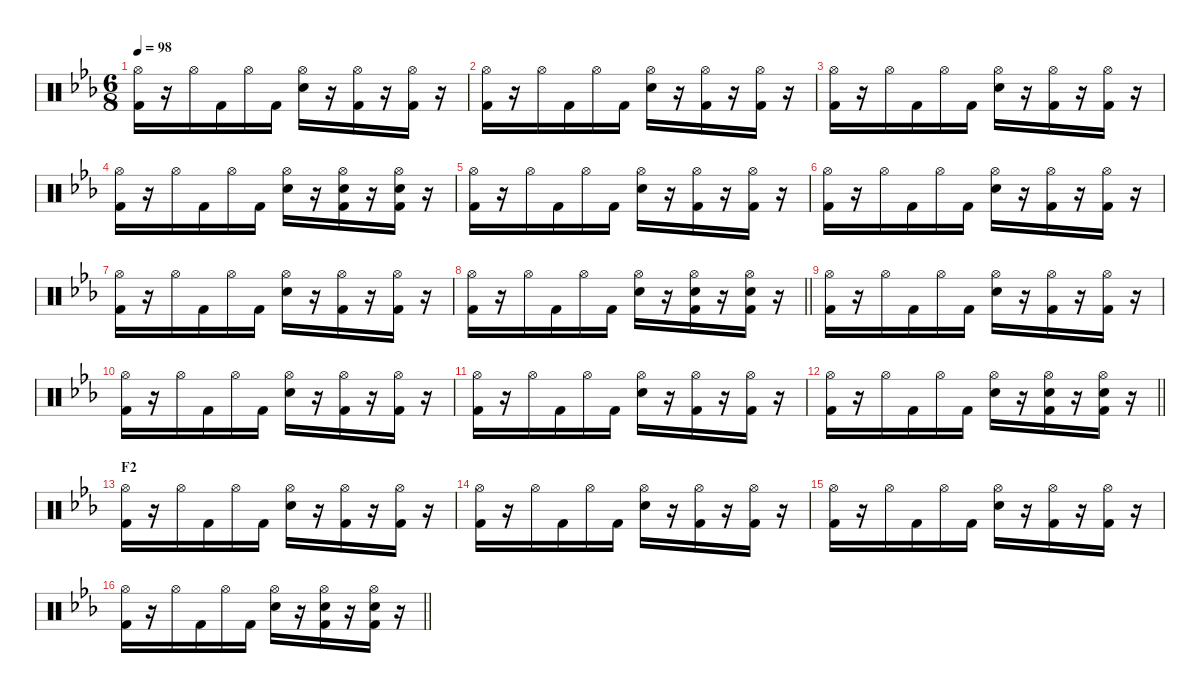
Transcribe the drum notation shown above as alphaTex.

\defaultSystemsLayout 4
\hideDynamics
\bracketExtendMode nobrackets
\singleTrackTrackNamePolicy hidden
\multiTrackTrackNamePolicy hidden
\firstSystemTrackNameMode fullname
\firstSystemTrackNameOrientation horizontal
\otherSystemsTrackNameOrientation horizontal
\track ("Gene Hogland" "drm.") {instrument percussion}
\staff {score}
\articulation defaults
\ts (6 8)
\tempo 98
\clef neutral
\ks eb
("Hi-Hat (open)"{acc forcenatural} "Kick (hit) 2"{acc forcenatural}).16{dy f beam Down} r.16{beam Down} "Hi-Hat (open)"{acc forcenatural}.16{beam Down} "Kick (hit) 2"{acc forcenatural}.16{beam Down} "Hi-Hat (open)"{acc forcenatural}.16{beam Down} "Kick (hit) 2"{acc forcenatural}.16{beam Down} ("Hi-Hat (open)"{acc forcenatural} "Snare (hit) 2"{acc forcenatural}).16{beam Down} r.16{beam Down} ("Hi-Hat (open)"{acc forcenatural} "Kick (hit) 2"{acc forcenatural}).16{beam Down} r.16{beam Down} ("Hi-Hat (open)"{acc forcenatural} "Kick (hit) 2"{acc forcenatural}).16{beam Down} r.16{beam Down} |
("Hi-Hat (open)"{acc forcenatural} "Kick (hit) 2"{acc forcenatural}).16{beam Down} r.16{beam Down} "Hi-Hat (open)"{acc forcenatural}.16{beam Down} "Kick (hit) 2"{acc forcenatural}.16{beam Down} "Hi-Hat (open)"{acc forcenatural}.16{beam Down} "Kick (hit) 2"{acc forcenatural}.16{beam Down} ("Hi-Hat (open)"{acc forcenatural} "Snare (hit) 2"{acc forcenatural}).16{beam Down} r.16{beam Down} ("Hi-Hat (open)"{acc forcenatural} "Kick (hit) 2"{acc forcenatural}).16{beam Down} r.16{beam Down} ("Hi-Hat (open)"{acc forcenatural} "Kick (hit) 2"{acc forcenatural}).16{beam Down} r.16{beam Down} |
("Hi-Hat (open)"{acc forcenatural} "Kick (hit) 2"{acc forcenatural}).16{beam Down} r.16{beam Down} "Hi-Hat (open)"{acc forcenatural}.16{beam Down} "Kick (hit) 2"{acc forcenatural}.16{beam Down} "Hi-Hat (open)"{acc forcenatural}.16{beam Down} "Kick (hit) 2"{acc forcenatural}.16{beam Down} ("Hi-Hat (open)"{acc forcenatural} "Snare (hit) 2"{acc forcenatural}).16{beam Down} r.16{beam Down} ("Hi-Hat (open)"{acc forcenatural} "Kick (hit) 2"{acc forcenatural}).16{beam Down} r.16{beam Down} ("Hi-Hat (open)"{acc forcenatural} "Kick (hit) 2"{acc forcenatural}).16{beam Down} r.16{beam Down} |
("Hi-Hat (open)"{acc forcenatural} "Kick (hit) 2"{acc forcenatural}).16{beam Down} r.16{beam Down} "Hi-Hat (open)"{acc forcenatural}.16{beam Down} "Kick (hit) 2"{acc forcenatural}.16{beam Down} "Hi-Hat (open)"{acc forcenatural}.16{beam Down} "Kick (hit) 2"{acc forcenatural}.16{beam Down} ("Hi-Hat (open)"{acc forcenatural} "Snare (hit) 2"{acc forcenatural}).16{beam Down} r.16{beam Down} ("Hi-Hat (open)"{acc forcenatural} "Snare (hit) 2"{acc forcenatural} "Kick (hit) 2"{acc forcenatural}).16{beam Down} r.16{beam Down} ("Hi-Hat (open)"{acc forcenatural} "Snare (hit) 2"{acc forcenatural} "Kick (hit) 2"{acc forcenatural}).16{beam Down} r.16{beam Down} |
("Hi-Hat (open)"{acc forcenatural} "Kick (hit) 2"{acc forcenatural}).16{beam Down} r.16{beam Down} "Hi-Hat (open)"{acc forcenatural}.16{beam Down} "Kick (hit) 2"{acc forcenatural}.16{beam Down} "Hi-Hat (open)"{acc forcenatural}.16{beam Down} "Kick (hit) 2"{acc forcenatural}.16{beam Down} ("Hi-Hat (open)"{acc forcenatural} "Snare (hit) 2"{acc forcenatural}).16{beam Down} r.16{beam Down} ("Hi-Hat (open)"{acc forcenatural} "Kick (hit) 2"{acc forcenatural}).16{beam Down} r.16{beam Down} ("Hi-Hat (open)"{acc forcenatural} "Kick (hit) 2"{acc forcenatural}).16{beam Down} r.16{beam Down} |
("Hi-Hat (open)"{acc forcenatural} "Kick (hit) 2"{acc forcenatural}).16{beam Down} r.16{beam Down} "Hi-Hat (open)"{acc forcenatural}.16{beam Down} "Kick (hit) 2"{acc forcenatural}.16{beam Down} "Hi-Hat (open)"{acc forcenatural}.16{beam Down} "Kick (hit) 2"{acc forcenatural}.16{beam Down} ("Hi-Hat (open)"{acc forcenatural} "Snare (hit) 2"{acc forcenatural}).16{beam Down} r.16{beam Down} ("Hi-Hat (open)"{acc forcenatural} "Kick (hit) 2"{acc forcenatural}).16{beam Down} r.16{beam Down} ("Hi-Hat (open)"{acc forcenatural} "Kick (hit) 2"{acc forcenatural}).16{beam Down} r.16{beam Down} |
("Hi-Hat (open)"{acc forcenatural} "Kick (hit) 2"{acc forcenatural}).16{beam Down} r.16{beam Down} "Hi-Hat (open)"{acc forcenatural}.16{beam Down} "Kick (hit) 2"{acc forcenatural}.16{beam Down} "Hi-Hat (open)"{acc forcenatural}.16{beam Down} "Kick (hit) 2"{acc forcenatural}.16{beam Down} ("Hi-Hat (open)"{acc forcenatural} "Snare (hit) 2"{acc forcenatural}).16{beam Down} r.16{beam Down} ("Hi-Hat (open)"{acc forcenatural} "Kick (hit) 2"{acc forcenatural}).16{beam Down} r.16{beam Down} ("Hi-Hat (open)"{acc forcenatural} "Kick (hit) 2"{acc forcenatural}).16{beam Down} r.16{beam Down} |
\barLineRight lightlight
("Hi-Hat (open)"{acc forcenatural} "Kick (hit) 2"{acc forcenatural}).16{beam Down} r.16{beam Down} "Hi-Hat (open)"{acc forcenatural}.16{beam Down} "Kick (hit) 2"{acc forcenatural}.16{beam Down} "Hi-Hat (open)"{acc forcenatural}.16{beam Down} "Kick (hit) 2"{acc forcenatural}.16{beam Down} ("Hi-Hat (open)"{acc forcenatural} "Snare (hit) 2"{acc forcenatural}).16{beam Down} r.16{beam Down} ("Hi-Hat (open)"{acc forcenatural} "Snare (hit) 2"{acc forcenatural} "Kick (hit) 2"{acc forcenatural}).16{beam Down} r.16{beam Down} ("Hi-Hat (open)"{acc forcenatural} "Snare (hit) 2"{acc forcenatural} "Kick (hit) 2"{acc forcenatural}).16{beam Down} r.16{beam Down} |
\section ("" "")
("Hi-Hat (open)"{acc forcenatural} "Kick (hit) 2"{acc forcenatural}).16{beam Down} r.16{beam Down} "Hi-Hat (open)"{acc forcenatural}.16{beam Down} "Kick (hit) 2"{acc forcenatural}.16{beam Down} "Hi-Hat (open)"{acc forcenatural}.16{beam Down} "Kick (hit) 2"{acc forcenatural}.16{beam Down} ("Hi-Hat (open)"{acc forcenatural} "Snare (hit) 2"{acc forcenatural}).16{beam Down} r.16{beam Down} ("Hi-Hat (open)"{acc forcenatural} "Kick (hit) 2"{acc forcenatural}).16{beam Down} r.16{beam Down} ("Hi-Hat (open)"{acc forcenatural} "Kick (hit) 2"{acc forcenatural}).16{beam Down} r.16{beam Down} |
("Hi-Hat (open)"{acc forcenatural} "Kick (hit) 2"{acc forcenatural}).16{beam Down} r.16{beam Down} "Hi-Hat (open)"{acc forcenatural}.16{beam Down} "Kick (hit) 2"{acc forcenatural}.16{beam Down} "Hi-Hat (open)"{acc forcenatural}.16{beam Down} "Kick (hit) 2"{acc forcenatural}.16{beam Down} ("Hi-Hat (open)"{acc forcenatural} "Snare (hit) 2"{acc forcenatural}).16{beam Down} r.16{beam Down} ("Hi-Hat (open)"{acc forcenatural} "Kick (hit) 2"{acc forcenatural}).16{beam Down} r.16{beam Down} ("Hi-Hat (open)"{acc forcenatural} "Kick (hit) 2"{acc forcenatural}).16{beam Down} r.16{beam Down} |
("Hi-Hat (open)"{acc forcenatural} "Kick (hit) 2"{acc forcenatural}).16{beam Down} r.16{beam Down} "Hi-Hat (open)"{acc forcenatural}.16{beam Down} "Kick (hit) 2"{acc forcenatural}.16{beam Down} "Hi-Hat (open)"{acc forcenatural}.16{beam Down} "Kick (hit) 2"{acc forcenatural}.16{beam Down} ("Hi-Hat (open)"{acc forcenatural} "Snare (hit) 2"{acc forcenatural}).16{beam Down} r.16{beam Down} ("Hi-Hat (open)"{acc forcenatural} "Kick (hit) 2"{acc forcenatural}).16{beam Down} r.16{beam Down} ("Hi-Hat (open)"{acc forcenatural} "Kick (hit) 2"{acc forcenatural}).16{beam Down} r.16{beam Down} |
\barLineRight lightlight
("Hi-Hat (open)"{acc forcenatural} "Kick (hit) 2"{acc forcenatural}).16{beam Down} r.16{beam Down} "Hi-Hat (open)"{acc forcenatural}.16{beam Down} "Kick (hit) 2"{acc forcenatural}.16{beam Down} "Hi-Hat (open)"{acc forcenatural}.16{beam Down} "Kick (hit) 2"{acc forcenatural}.16{beam Down} ("Hi-Hat (open)"{acc forcenatural} "Snare (hit) 2"{acc forcenatural}).16{beam Down} r.16{beam Down} ("Hi-Hat (open)"{acc forcenatural} "Snare (hit) 2"{acc forcenatural} "Kick (hit) 2"{acc forcenatural}).16{beam Down} r.16{beam Down} ("Hi-Hat (open)"{acc forcenatural} "Snare (hit) 2"{acc forcenatural} "Kick (hit) 2"{acc forcenatural}).16{beam Down} r.16{beam Down} |
\section ("" "F2")
("Hi-Hat (open)"{acc forcenatural} "Kick (hit) 2"{acc forcenatural}).16{beam Down} r.16{beam Down} "Hi-Hat (open)"{acc forcenatural}.16{beam Down} "Kick (hit) 2"{acc forcenatural}.16{beam Down} "Hi-Hat (open)"{acc forcenatural}.16{beam Down} "Kick (hit) 2"{acc forcenatural}.16{beam Down} ("Hi-Hat (open)"{acc forcenatural} "Snare (hit) 2"{acc forcenatural}).16{beam Down} r.16{beam Down} ("Hi-Hat (open)"{acc forcenatural} "Kick (hit) 2"{acc forcenatural}).16{beam Down} r.16{beam Down} ("Hi-Hat (open)"{acc forcenatural} "Kick (hit) 2"{acc forcenatural}).16{beam Down} r.16{beam Down} |
("Hi-Hat (open)"{acc forcenatural} "Kick (hit) 2"{acc forcenatural}).16{beam Down} r.16{beam Down} "Hi-Hat (open)"{acc forcenatural}.16{beam Down} "Kick (hit) 2"{acc forcenatural}.16{beam Down} "Hi-Hat (open)"{acc forcenatural}.16{beam Down} "Kick (hit) 2"{acc forcenatural}.16{beam Down} ("Hi-Hat (open)"{acc forcenatural} "Snare (hit) 2"{acc forcenatural}).16{beam Down} r.16{beam Down} ("Hi-Hat (open)"{acc forcenatural} "Kick (hit) 2"{acc forcenatural}).16{beam Down} r.16{beam Down} ("Hi-Hat (open)"{acc forcenatural} "Kick (hit) 2"{acc forcenatural}).16{beam Down} r.16{beam Down} |
("Hi-Hat (open)"{acc forcenatural} "Kick (hit) 2"{acc forcenatural}).16{beam Down} r.16{beam Down} "Hi-Hat (open)"{acc forcenatural}.16{beam Down} "Kick (hit) 2"{acc forcenatural}.16{beam Down} "Hi-Hat (open)"{acc forcenatural}.16{beam Down} "Kick (hit) 2"{acc forcenatural}.16{beam Down} ("Hi-Hat (open)"{acc forcenatural} "Snare (hit) 2"{acc forcenatural}).16{beam Down} r.16{beam Down} ("Hi-Hat (open)"{acc forcenatural} "Kick (hit) 2"{acc forcenatural}).16{beam Down} r.16{beam Down} ("Hi-Hat (open)"{acc forcenatural} "Kick (hit) 2"{acc forcenatural}).16{beam Down} r.16{beam Down} |
\barLineRight lightlight
("Hi-Hat (open)"{acc forcenatural} "Kick (hit) 2"{acc forcenatural}).16{beam Down} r.16{beam Down} "Hi-Hat (open)"{acc forcenatural}.16{beam Down} "Kick (hit) 2"{acc forcenatural}.16{beam Down} "Hi-Hat (open)"{acc forcenatural}.16{beam Down} "Kick (hit) 2"{acc forcenatural}.16{beam Down} ("Hi-Hat (open)"{acc forcenatural} "Snare (hit) 2"{acc forcenatural}).16{beam Down} r.16{beam Down} ("Hi-Hat (open)"{acc forcenatural} "Snare (hit) 2"{acc forcenatural} "Kick (hit) 2"{acc forcenatural}).16{beam Down} r.16{beam Down} ("Hi-Hat (open)"{acc forcenatural} "Snare (hit) 2"{acc forcenatural} "Kick (hit) 2"{acc forcenatural}).16{beam Down} r.16{beam Down}
